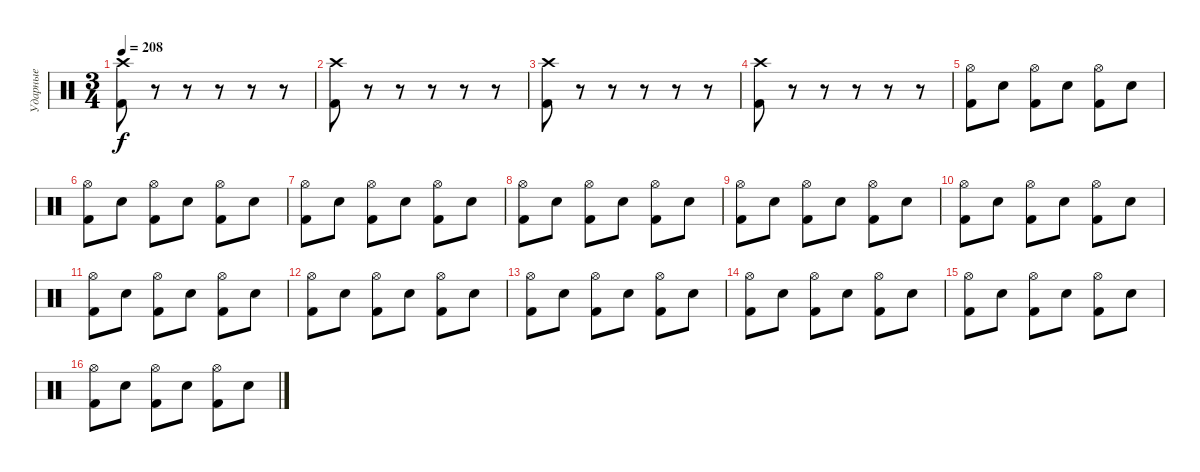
\track ("Ударные" "Ударные") {instrument percussion}
\staff {score}
\articulation defaults
\ts (3 4)
\tempo 208
\clef neutral
\ks c
("Crash high (hit)" "Kick (hit) 2").8{dy f} r.8 r.8 r.8 r.8 r.8 |
("Crash high (hit)" "Kick (hit) 2").8 r.8 r.8 r.8 r.8 r.8 |
("Crash high (hit)" "Kick (hit) 2").8 r.8 r.8 r.8 r.8 r.8 |
("Crash high (hit)" "Kick (hit) 2").8 r.8 r.8 r.8 r.8 r.8 |
("Hi-Hat (open)" "Kick (hit) 2").8 "Electric Snare (hit)".8 ("Hi-Hat (open)" "Kick (hit) 2").8 "Electric Snare (hit)".8 ("Hi-Hat (open)" "Kick (hit) 2").8 "Electric Snare (hit)".8 |
("Hi-Hat (open)" "Kick (hit) 2").8 "Electric Snare (hit)".8 ("Hi-Hat (open)" "Kick (hit) 2").8 "Electric Snare (hit)".8 ("Hi-Hat (open)" "Kick (hit) 2").8 "Electric Snare (hit)".8 |
("Hi-Hat (open)" "Kick (hit) 2").8 "Electric Snare (hit)".8 ("Hi-Hat (open)" "Kick (hit) 2").8 "Electric Snare (hit)".8 ("Hi-Hat (open)" "Kick (hit) 2").8 "Electric Snare (hit)".8 |
("Hi-Hat (open)" "Kick (hit) 2").8 "Electric Snare (hit)".8 ("Hi-Hat (open)" "Kick (hit) 2").8 "Electric Snare (hit)".8 ("Hi-Hat (open)" "Kick (hit) 2").8 "Electric Snare (hit)".8 |
("Hi-Hat (open)" "Kick (hit) 2").8 "Electric Snare (hit)".8 ("Hi-Hat (open)" "Kick (hit) 2").8 "Electric Snare (hit)".8 ("Hi-Hat (open)" "Kick (hit) 2").8 "Electric Snare (hit)".8 |
("Hi-Hat (open)" "Kick (hit) 2").8 "Electric Snare (hit)".8 ("Hi-Hat (open)" "Kick (hit) 2").8 "Electric Snare (hit)".8 ("Hi-Hat (open)" "Kick (hit) 2").8 "Electric Snare (hit)".8 |
("Hi-Hat (open)" "Kick (hit) 2").8 "Electric Snare (hit)".8 ("Hi-Hat (open)" "Kick (hit) 2").8 "Electric Snare (hit)".8 ("Hi-Hat (open)" "Kick (hit) 2").8 "Electric Snare (hit)".8 |
("Hi-Hat (open)" "Kick (hit) 2").8 "Electric Snare (hit)".8 ("Hi-Hat (open)" "Kick (hit) 2").8 "Electric Snare (hit)".8 ("Hi-Hat (open)" "Kick (hit) 2").8 "Electric Snare (hit)".8 |
("Hi-Hat (open)" "Kick (hit) 2").8 "Electric Snare (hit)".8 ("Hi-Hat (open)" "Kick (hit) 2").8 "Electric Snare (hit)".8 ("Hi-Hat (open)" "Kick (hit) 2").8 "Electric Snare (hit)".8 |
("Hi-Hat (open)" "Kick (hit) 2").8 "Electric Snare (hit)".8 ("Hi-Hat (open)" "Kick (hit) 2").8 "Electric Snare (hit)".8 ("Hi-Hat (open)" "Kick (hit) 2").8 "Electric Snare (hit)".8 |
("Hi-Hat (open)" "Kick (hit) 2").8 "Electric Snare (hit)".8 ("Hi-Hat (open)" "Kick (hit) 2").8 "Electric Snare (hit)".8 ("Hi-Hat (open)" "Kick (hit) 2").8 "Electric Snare (hit)".8 |
("Hi-Hat (open)" "Kick (hit) 2").8 "Electric Snare (hit)".8 ("Hi-Hat (open)" "Kick (hit) 2").8 "Electric Snare (hit)".8 ("Hi-Hat (open)" "Kick (hit) 2").8 "Electric Snare (hit)".8
